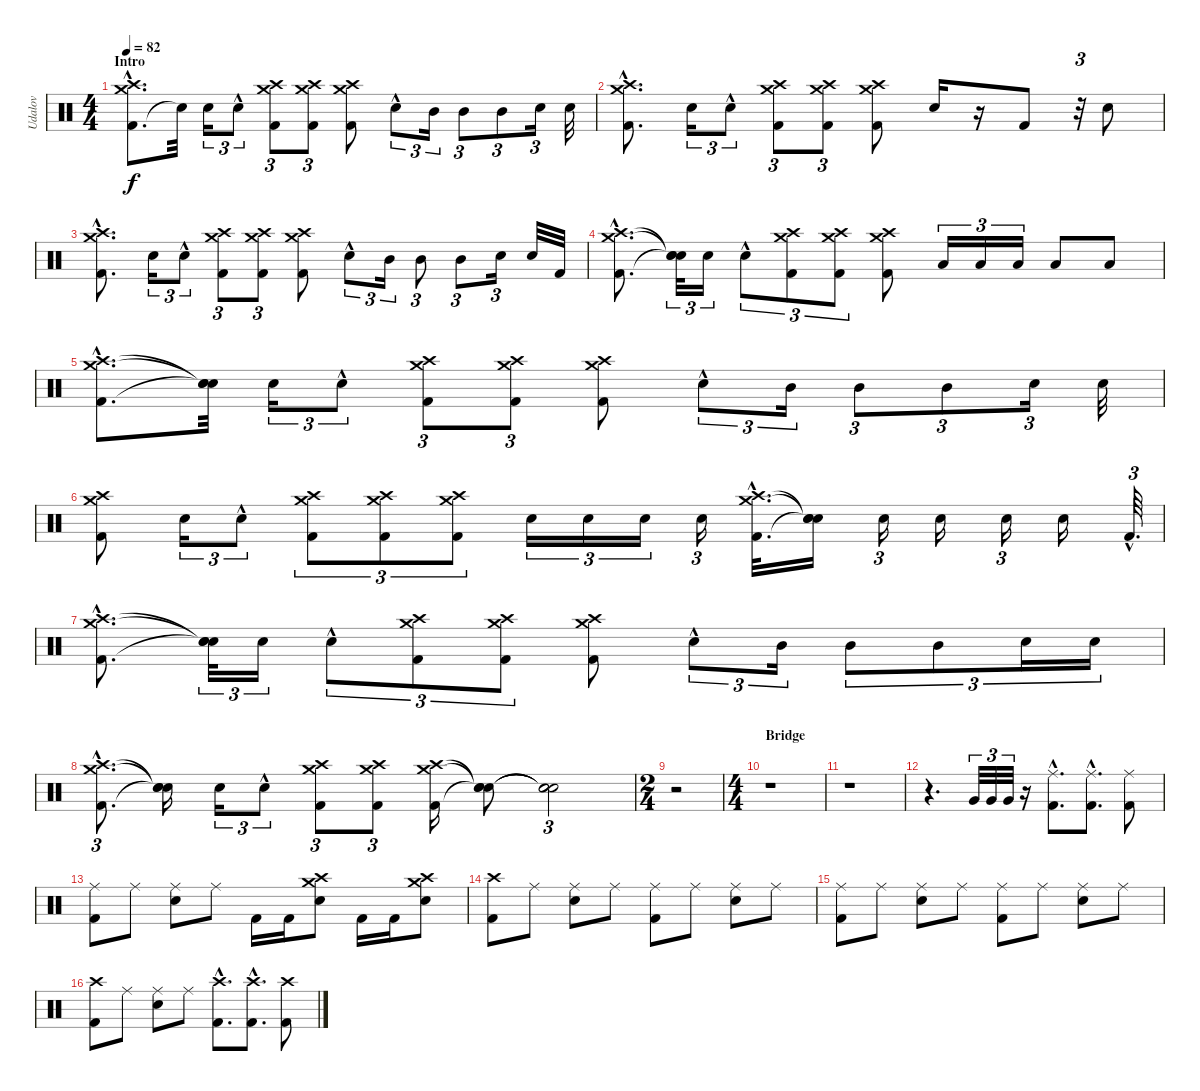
\track ("Udalov" "Udalov") {instrument percussion}
\staff {score}
\articulation defaults
\ts (4 4)
\section ("" "Intro")
\tempo 82
\clef neutral
\ks c
("Kick (hit) 2"{hac} "Crash high (hit)"{hac} "Crash medium (hit)"{hac}).8{d dy f} "Snare (hit)"{t}.32 "Snare (hit) 2".16{tu (3 2)} "Snare (hit) 2"{hac}.8{tu (3 2)} ("Kick (hit) 2" "Crash high (hit)" "Crash medium (hit)").8{tu (3 2)} ("Kick (hit) 2" "Crash high (hit)" "Crash medium (hit)").8{tu (3 2)} ("Kick (hit) 2" "Crash high (hit)" "Crash medium (hit)").8 "Snare (hit) 2"{hac}.8{tu (3 2)} "Mid Tom (hit)".16{tu (3 2)} "Mid Tom (hit)".8{tu (3 2)} "Mid Tom (hit)".8{tu (3 2)} "Snare (hit) 2".16{tu (3 2)} "Snare (hit) 2".32 |
("Kick (hit) 2"{hac} "Crash high (hit)"{hac} "Crash medium (hit)"{hac}).8{d} "Snare (hit) 2".16{tu (3 2)} "Snare (hit) 2"{hac}.8{tu (3 2)} ("Kick (hit) 2" "Crash high (hit)" "Crash medium (hit)").8{tu (3 2)} ("Kick (hit) 2" "Crash high (hit)" "Crash medium (hit)").8{tu (3 2)} ("Kick (hit) 2" "Crash high (hit)" "Crash medium (hit)").8 "Snare (hit) 2".16 r.16 "Kick (hit) 2".8 r.32{tu (3 2)} "Snare (hit) 2".8 |
("Kick (hit) 2"{hac} "Crash high (hit)"{hac} "Crash medium (hit)"{hac}).8{d} "Snare (hit) 2".16{tu (3 2)} "Snare (hit) 2"{hac}.8{tu (3 2)} ("Kick (hit) 2" "Crash high (hit)" "Crash medium (hit)").8{tu (3 2)} ("Kick (hit) 2" "Crash high (hit)" "Crash medium (hit)").8{tu (3 2)} ("Kick (hit) 2" "Crash high (hit)" "Crash medium (hit)").8 "Snare (hit) 2"{hac}.8{tu (3 2)} "Mid Tom (hit)".16{tu (3 2)} "Mid Tom (hit)".8{tu (3 2)} "Mid Tom (hit)".8{tu (3 2)} "Snare (hit) 2".16{tu (3 2)} "Snare (hit) 2".32 "Kick (hit) 2".32 |
("Kick (hit) 2"{hac} "Crash high (hit)"{hac} "Crash medium (hit)"{hac}).8{d} ("Snare (hit)"{t} "Snare (hit)"{t} "Snare (hit)"{t}).32{tu (3 2)} "Snare (hit) 2".16{tu (3 2)} "Snare (hit) 2"{hac}.8{tu (3 2)} ("Kick (hit) 2" "Crash high (hit)" "Crash medium (hit)").8{tu (3 2)} ("Kick (hit) 2" "Crash high (hit)" "Crash medium (hit)").8{tu (3 2)} ("Kick (hit) 2" "Crash high (hit)" "Crash medium (hit)").8 "Low Tom (hit)".16{tu (3 2)} "Low Tom (hit)".16{tu (3 2)} "Low Tom (hit)".16{tu (3 2)} "Low Tom (hit)".8 "Low Tom (hit)".8 |
("Kick (hit) 2"{hac} "Crash high (hit)"{hac} "Crash medium (hit)"{hac}).8{d} ("Snare (hit)"{t} "Snare (hit)"{t} "Snare (hit)"{t}).32 "Snare (hit) 2".16{tu (3 2)} "Snare (hit) 2"{hac}.8{tu (3 2)} ("Kick (hit) 2" "Crash high (hit)" "Crash medium (hit)").8{tu (3 2)} ("Kick (hit) 2" "Crash high (hit)" "Crash medium (hit)").8{tu (3 2)} ("Kick (hit) 2" "Crash high (hit)" "Crash medium (hit)").8 "Snare (hit) 2"{hac}.8{tu (3 2)} "Mid Tom (hit)".16{tu (3 2)} "Mid Tom (hit)".8{tu (3 2)} "Mid Tom (hit)".8{tu (3 2)} "Snare (hit) 2".16{tu (3 2)} "Snare (hit) 2".32 |
("Kick (hit) 2" "Crash high (hit)" "Crash medium (hit)").8 "Snare (hit) 2".16{tu (3 2)} "Snare (hit) 2"{hac}.8{tu (3 2)} ("Kick (hit) 2" "Crash medium (hit)" "Crash high (hit)").8{tu (3 2)} ("Kick (hit) 2" "Crash high (hit)" "Crash medium (hit)").8{tu (3 2)} ("Kick (hit) 2" "Crash high (hit)" "Crash medium (hit)").8{tu (3 2)} "Snare (hit) 2".16{tu (3 2)} "Snare (hit) 2".16{tu (3 2)} "Snare (hit) 2".16{tu (3 2)} "Snare (hit) 2".16{tu (3 2)} ("Kick (hit) 2" "Crash medium (hit)"{hac} "Crash high (hit)"{hac}).32{d} ("Snare (hit)"{t} "Snare (hit)"{t} "Snare (hit)"{t}).16 "Snare (hit) 2".16{tu (3 2)} "Snare (hit) 2".16 "Snare (hit) 2".16{tu (3 2)} "Snare (hit) 2".16 "Kick (hit) 2"{hac}.64{d tu (3 2)} |
("Crash high (hit)"{hac} "Crash medium (hit)"{hac} "Kick (hit) 2"{hac}).8{d} ("Snare (hit)"{t} "Snare (hit)"{t} "Snare (hit)"{t}).32{tu (3 2)} "Snare (hit) 2".16{tu (3 2)} "Snare (hit) 2"{hac}.8{tu (3 2)} ("Kick (hit) 2" "Crash high (hit)" "Crash medium (hit)").8{tu (3 2)} ("Kick (hit) 2" "Crash high (hit)" "Crash medium (hit)").8{tu (3 2)} ("Kick (hit) 2" "Crash high (hit)" "Crash medium (hit)").8 "Snare (hit) 2"{hac}.8{tu (3 2)} "Mid Tom (hit)".16{tu (3 2)} "Mid Tom (hit)".8{tu (3 2)} "Mid Tom (hit)".8{tu (3 2)} "Snare (hit) 2".16{tu (3 2)} "Snare (hit) 2".16{tu (3 2)} |
("Kick (hit) 2"{hac} "Crash high (hit)"{hac} "Crash medium (hit)"{hac}).8{d tu (3 2)} ("Snare (hit)"{t} "Snare (hit)"{t} "Snare (hit)"{t}).16 "Snare (hit) 2".16{tu (3 2)} "Snare (hit) 2"{hac}.8{tu (3 2)} ("Kick (hit) 2" "Crash high (hit)" "Crash medium (hit)").8{tu (3 2)} ("Kick (hit) 2" "Crash high (hit)" "Crash medium (hit)").8{tu (3 2)} ("Kick (hit) 2" "Crash medium (hit)" "Crash high (hit)").16 ("Snare (hit)"{t} "Snare (hit)"{t} "Snare (hit)"{t}).8 ("Snare (hit)"{t} "Snare (hit)"{t} "Snare (hit)"{t}).2{tu (3 2)} |
\ts (2 4)
r.2 |
\ts (4 4)
\section ("" "Bridge")
r.1 |
r.1 |
r.4{d} "Very Low Tom (hit)".32{tu (3 2)} "Very Low Tom (hit)".32{tu (3 2)} "Very Low Tom (hit)".32{tu (3 2)} r.16 ("Kick (hit) 2"{hac} "Ride (middle)"{hac}).8{d} ("Kick (hit) 2"{hac} "Ride (middle)"{hac}).8{d} ("Kick (hit) 2" "Ride (middle)").8 |
("Kick (hit) 2" "Ride (middle)").8 "Ride (middle)".8 ("Snare (hit) 2" "Ride (middle)").8 "Ride (middle)".8 "Kick (hit) 2".16 "Kick (hit) 2".16 ("Snare (hit) 2" "Crash high (hit)" "Crash medium (hit)").8 "Kick (hit) 2".16 "Kick (hit) 2".16 ("Snare (hit) 2" "Crash high (hit)" "Crash medium (hit)").8 |
("Kick (hit) 2" "Crash high (hit)").8 "Ride (middle)".8 ("Snare (hit) 2" "Ride (middle)").8 "Ride (middle)".8 ("Kick (hit) 2" "Ride (middle)").8 "Ride (middle)".8 ("Snare (hit) 2" "Ride (middle)").8 "Ride (middle)".8 |
("Kick (hit) 2" "Ride (middle)").8 "Ride (middle)".8 ("Snare (hit) 2" "Ride (middle)").8 "Ride (middle)".8 ("Kick (hit) 2" "Ride (middle)").8 "Ride (middle)".8 ("Snare (hit) 2" "Ride (middle)").8 "Ride (middle)".8 |
("Kick (hit) 2" "Crash high (hit)").8 "Ride (middle)".8 ("Snare (hit) 2" "Ride (middle)").8 "Ride (middle)".8 ("Kick (hit) 2"{hac} "Crash high (hit)"{hac}).8{d} ("Kick (hit) 2"{hac} "Crash high (hit)"{hac}).8{d} ("Kick (hit) 2" "Crash high (hit)").8
